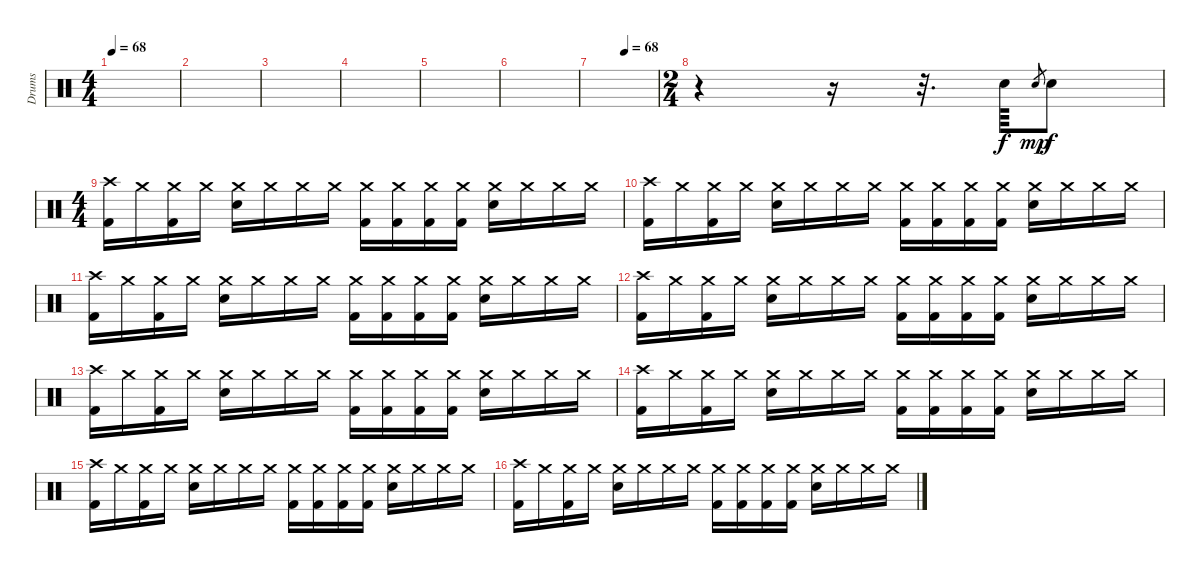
\track ("Drums" "Drums") {instrument percussion}
\staff {score}
\articulation defaults
\ts (4 4)
\tempo 68
\tempo 60
\tempo 68
\clef neutral
\ks c
|
|
|
|
|
|
\tempo (68 0.5)
|
\ts (2 4)
r.4 r.16 r.32{d} "Electric Snare (hit)".64 "Electric Snare (hit)".8{gr dy mp} "Electric Snare (hit)".8{dy f} |
\ts (4 4)
("Crash high (hit)" "Kick (hit) 2").16 "Crash medium (hit)".16 ("Crash medium (hit)" "Kick (hit) 2").16 "Crash medium (hit)".16 ("Crash medium (hit)" "Electric Snare (hit)").16 "Crash medium (hit)".16 "Crash medium (hit)".16 "Crash medium (hit)".16 ("Crash medium (hit)" "Kick (hit) 2").16 ("Crash medium (hit)" "Kick (hit) 2").16 ("Crash medium (hit)" "Kick (hit) 2").16 ("Crash medium (hit)" "Kick (hit) 2").16 ("Crash medium (hit)" "Electric Snare (hit)").16 "Crash medium (hit)".16 "Crash medium (hit)".16 "Crash medium (hit)".16 |
("Crash high (hit)" "Kick (hit) 2").16 "Crash medium (hit)".16 ("Crash medium (hit)" "Kick (hit) 2").16 "Crash medium (hit)".16 ("Crash medium (hit)" "Electric Snare (hit)").16 "Crash medium (hit)".16 "Crash medium (hit)".16 "Crash medium (hit)".16 ("Crash medium (hit)" "Kick (hit) 2").16 ("Crash medium (hit)" "Kick (hit) 2").16 ("Crash medium (hit)" "Kick (hit) 2").16 ("Crash medium (hit)" "Kick (hit) 2").16 ("Crash medium (hit)" "Electric Snare (hit)").16 "Crash medium (hit)".16 "Crash medium (hit)".16 "Crash medium (hit)".16 |
("Crash high (hit)" "Kick (hit) 2").16 "Crash medium (hit)".16 ("Crash medium (hit)" "Kick (hit) 2").16 "Crash medium (hit)".16 ("Crash medium (hit)" "Electric Snare (hit)").16 "Crash medium (hit)".16 "Crash medium (hit)".16 "Crash medium (hit)".16 ("Crash medium (hit)" "Kick (hit) 2").16 ("Crash medium (hit)" "Kick (hit) 2").16 ("Crash medium (hit)" "Kick (hit) 2").16 ("Crash medium (hit)" "Kick (hit) 2").16 ("Crash medium (hit)" "Electric Snare (hit)").16 "Crash medium (hit)".16 "Crash medium (hit)".16 "Crash medium (hit)".16 |
("Crash high (hit)" "Kick (hit) 2").16 "Crash medium (hit)".16 ("Crash medium (hit)" "Kick (hit) 2").16 "Crash medium (hit)".16 ("Crash medium (hit)" "Electric Snare (hit)").16 "Crash medium (hit)".16 "Crash medium (hit)".16 "Crash medium (hit)".16 ("Crash medium (hit)" "Kick (hit) 2").16 ("Crash medium (hit)" "Kick (hit) 2").16 ("Crash medium (hit)" "Kick (hit) 2").16 ("Crash medium (hit)" "Kick (hit) 2").16 ("Crash medium (hit)" "Electric Snare (hit)").16 "Crash medium (hit)".16 "Crash medium (hit)".16 "Crash medium (hit)".16 |
("Crash high (hit)" "Kick (hit) 2").16 "Crash medium (hit)".16 ("Crash medium (hit)" "Kick (hit) 2").16 "Crash medium (hit)".16 ("Crash medium (hit)" "Electric Snare (hit)").16 "Crash medium (hit)".16 "Crash medium (hit)".16 "Crash medium (hit)".16 ("Crash medium (hit)" "Kick (hit) 2").16 ("Crash medium (hit)" "Kick (hit) 2").16 ("Crash medium (hit)" "Kick (hit) 2").16 ("Crash medium (hit)" "Kick (hit) 2").16 ("Crash medium (hit)" "Electric Snare (hit)").16 "Crash medium (hit)".16 "Crash medium (hit)".16 "Crash medium (hit)".16 |
("Crash high (hit)" "Kick (hit) 2").16 "Crash medium (hit)".16 ("Crash medium (hit)" "Kick (hit) 2").16 "Crash medium (hit)".16 ("Crash medium (hit)" "Electric Snare (hit)").16 "Crash medium (hit)".16 "Crash medium (hit)".16 "Crash medium (hit)".16 ("Crash medium (hit)" "Kick (hit) 2").16 ("Crash medium (hit)" "Kick (hit) 2").16 ("Crash medium (hit)" "Kick (hit) 2").16 ("Crash medium (hit)" "Kick (hit) 2").16 ("Crash medium (hit)" "Electric Snare (hit)").16 "Crash medium (hit)".16 "Crash medium (hit)".16 "Crash medium (hit)".16 |
("Crash high (hit)" "Kick (hit) 2").16 "Crash medium (hit)".16 ("Crash medium (hit)" "Kick (hit) 2").16 "Crash medium (hit)".16 ("Crash medium (hit)" "Electric Snare (hit)").16 "Crash medium (hit)".16 "Crash medium (hit)".16 "Crash medium (hit)".16 ("Crash medium (hit)" "Kick (hit) 2").16 ("Crash medium (hit)" "Kick (hit) 2").16 ("Crash medium (hit)" "Kick (hit) 2").16 ("Crash medium (hit)" "Kick (hit) 2").16 ("Crash medium (hit)" "Electric Snare (hit)").16 "Crash medium (hit)".16 "Crash medium (hit)".16 "Crash medium (hit)".16 |
("Crash high (hit)" "Kick (hit) 2").16 "Crash medium (hit)".16 ("Crash medium (hit)" "Kick (hit) 2").16 "Crash medium (hit)".16 ("Crash medium (hit)" "Electric Snare (hit)").16 "Crash medium (hit)".16 "Crash medium (hit)".16 "Crash medium (hit)".16 ("Crash medium (hit)" "Kick (hit) 2").16 ("Crash medium (hit)" "Kick (hit) 2").16 ("Crash medium (hit)" "Kick (hit) 2").16 ("Crash medium (hit)" "Kick (hit) 2").16 ("Crash medium (hit)" "Electric Snare (hit)").16 "Crash medium (hit)".16 "Crash medium (hit)".16 "Crash medium (hit)".16
